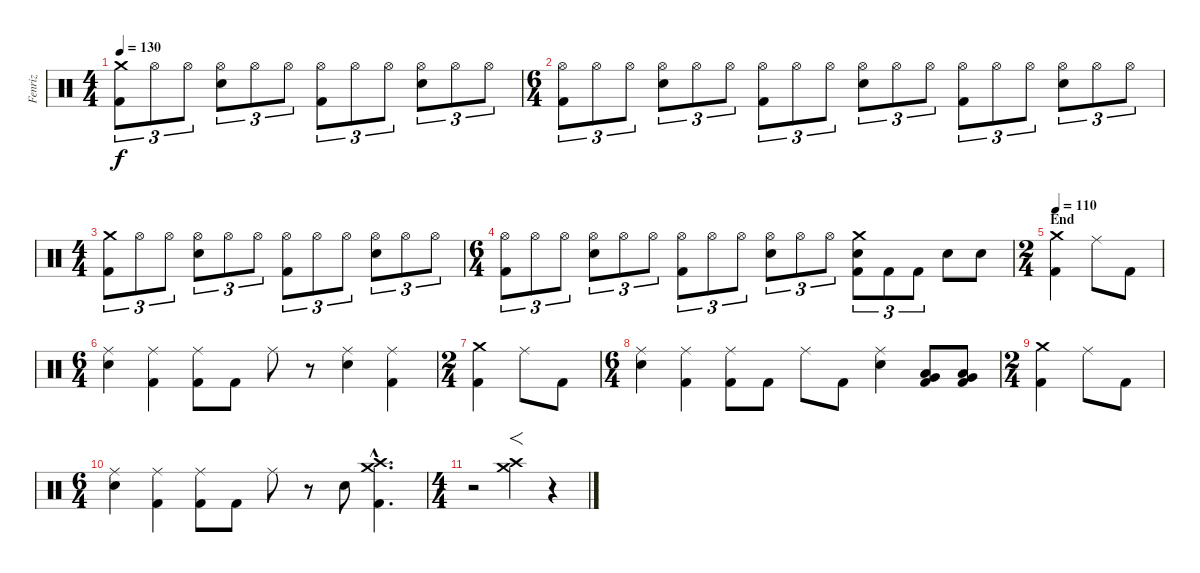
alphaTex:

\track ("Fenriz" "Fenriz") {instrument percussion}
\staff {score}
\articulation defaults
\ts (4 4)
\tempo 130
\clef neutral
\ks c
("Crash medium (hit)" "Kick (hit) 2").8{tu (3 2) dy f} "Hi-Hat (open)".8{tu (3 2)} "Hi-Hat (open)".8{tu (3 2)} ("Hi-Hat (open)" "Electric Snare (hit)").8{tu (3 2)} "Hi-Hat (open)".8{tu (3 2)} "Hi-Hat (open)".8{tu (3 2)} ("Hi-Hat (open)" "Kick (hit) 2").8{tu (3 2)} "Hi-Hat (open)".8{tu (3 2)} "Hi-Hat (open)".8{tu (3 2)} ("Hi-Hat (open)" "Electric Snare (hit)").8{tu (3 2)} "Hi-Hat (open)".8{tu (3 2)} "Hi-Hat (open)".8{tu (3 2)} |
\ts (6 4)
("Hi-Hat (open)" "Kick (hit) 2").8{tu (3 2)} "Hi-Hat (open)".8{tu (3 2)} "Hi-Hat (open)".8{tu (3 2)} ("Hi-Hat (open)" "Electric Snare (hit)").8{tu (3 2)} "Hi-Hat (open)".8{tu (3 2)} "Hi-Hat (open)".8{tu (3 2)} ("Hi-Hat (open)" "Kick (hit) 2").8{tu (3 2)} "Hi-Hat (open)".8{tu (3 2)} "Hi-Hat (open)".8{tu (3 2)} ("Hi-Hat (open)" "Electric Snare (hit)").8{tu (3 2)} "Hi-Hat (open)".8{tu (3 2)} "Hi-Hat (open)".8{tu (3 2)} ("Hi-Hat (open)" "Kick (hit) 2").8{tu (3 2)} "Hi-Hat (open)".8{tu (3 2)} "Hi-Hat (open)".8{tu (3 2)} ("Hi-Hat (open)" "Electric Snare (hit)").8{tu (3 2)} "Hi-Hat (open)".8{tu (3 2)} "Hi-Hat (open)".8{tu (3 2)} |
\ts (4 4)
("Crash medium (hit)" "Kick (hit) 2").8{tu (3 2)} "Hi-Hat (open)".8{tu (3 2)} "Hi-Hat (open)".8{tu (3 2)} ("Hi-Hat (open)" "Electric Snare (hit)").8{tu (3 2)} "Hi-Hat (open)".8{tu (3 2)} "Hi-Hat (open)".8{tu (3 2)} ("Hi-Hat (open)" "Kick (hit) 2").8{tu (3 2)} "Hi-Hat (open)".8{tu (3 2)} "Hi-Hat (open)".8{tu (3 2)} ("Hi-Hat (open)" "Electric Snare (hit)").8{tu (3 2)} "Hi-Hat (open)".8{tu (3 2)} "Hi-Hat (open)".8{tu (3 2)} |
\ts (6 4)
("Hi-Hat (open)" "Kick (hit) 2").8{tu (3 2)} "Hi-Hat (open)".8{tu (3 2)} "Hi-Hat (open)".8{tu (3 2)} ("Hi-Hat (open)" "Electric Snare (hit)").8{tu (3 2)} "Hi-Hat (open)".8{tu (3 2)} "Hi-Hat (open)".8{tu (3 2)} ("Hi-Hat (open)" "Kick (hit) 2").8{tu (3 2)} "Hi-Hat (open)".8{tu (3 2)} "Hi-Hat (open)".8{tu (3 2)} ("Hi-Hat (open)" "Electric Snare (hit)").8{tu (3 2)} "Hi-Hat (open)".8{tu (3 2)} "Hi-Hat (open)".8{tu (3 2)} ("Crash medium (hit)" "Electric Snare (hit)" "Kick (hit) 2").8{tu (3 2)} "Kick (hit) 2".8{tu (3 2)} "Kick (hit) 2".8{tu (3 2)} "Electric Snare (hit)".8 "Electric Snare (hit)".8 |
\ts (2 4)
\section ("" "End")
\tempo 110
("Crash medium (hit)" "Kick (hit) 2").4 "Ride (middle)".8 "Kick (hit) 2".8 |
\ts (6 4)
("Ride (middle)" "Electric Snare (hit)").4 ("Ride (middle)" "Kick (hit) 2").4 ("Ride (middle)" "Kick (hit) 2").8 "Kick (hit) 2".8 "Ride (middle)".8 r.8 ("Ride (middle)" "Electric Snare (hit)").4 ("Ride (middle)" "Kick (hit) 2").4 |
\ts (2 4)
("Crash medium (hit)" "Kick (hit) 2").4 "Ride (middle)".8 "Kick (hit) 2".8 |
\ts (6 4)
("Ride (middle)" "Electric Snare (hit)").4 ("Ride (middle)" "Kick (hit) 2").4 ("Ride (middle)" "Kick (hit) 2").8 "Kick (hit) 2".8 "Ride (middle)".8 "Kick (hit) 2".8 ("Ride (middle)" "Electric Snare (hit)").4 ("Very Low Tom (hit)" "Low Floor Tom (hit)" "Kick (hit) 2").8 ("Very Low Tom (hit)" "Low Floor Tom (hit)" "Kick (hit) 2").8 |
\ts (2 4)
("Crash medium (hit)" "Kick (hit) 2").4 "Ride (middle)".8 "Kick (hit) 2".8 |
\ts (6 4)
("Ride (middle)" "Electric Snare (hit)").4 ("Ride (middle)" "Kick (hit) 2").4 ("Ride (middle)" "Kick (hit) 2").8 "Kick (hit) 2".8 "Ride (middle)".8 r.8 "Electric Snare (hit)".8 ("Crash medium (hit)"{hac} "Crash high (hit)"{hac} "Kick (hit) 2"{hac}).4{d} |
\ts (4 4)
r.2 ("Crash medium (hit)" "Crash high (hit)").4{f} r.4
